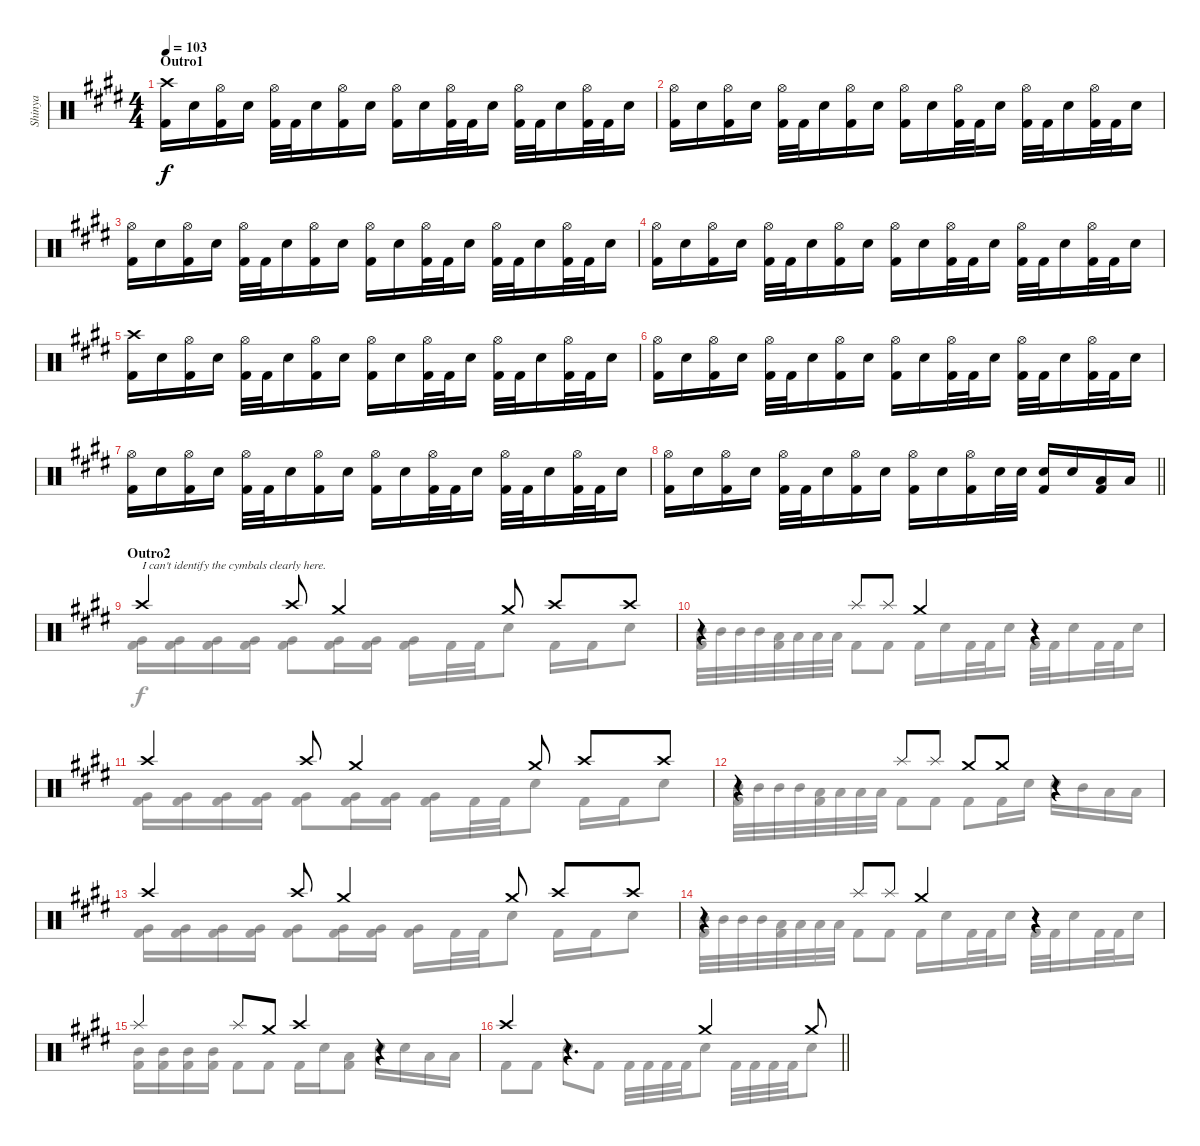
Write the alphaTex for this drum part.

\track ("Shinya" "Shinya") {instrument percussion}
\staff {score}
\articulation defaults
\voice
\ts (4 4)
\section ("" "Outro1")
\tempo 103
\clef neutral
\ks c#minor
("Crash high (hit)" "Kick (hit) 2").16{dy f} "Snare (hit) 2".16 ("Hi-Hat (open)" "Kick (hit) 2").16 "Snare (hit) 2".16 ("Hi-Hat (open)" "Kick (hit) 2").32 "Kick (hit) 2".32 "Snare (hit) 2".16 ("Hi-Hat (open)" "Kick (hit) 2").16 "Snare (hit) 2".16 ("Hi-Hat (open)" "Kick (hit) 2").16 "Snare (hit) 2".16 ("Hi-Hat (open)" "Kick (hit) 2").32 "Kick (hit) 2".32 "Snare (hit) 2".16 ("Hi-Hat (open)" "Kick (hit) 2").32 "Kick (hit) 2".32 "Snare (hit) 2".16 ("Hi-Hat (open)" "Kick (hit) 2").32 "Kick (hit) 2".32 "Snare (hit) 2".16 |
("Hi-Hat (open)" "Kick (hit) 2").16 "Snare (hit) 2".16 ("Hi-Hat (open)" "Kick (hit) 2").16 "Snare (hit) 2".16 ("Hi-Hat (open)" "Kick (hit) 2").32 "Kick (hit) 2".32 "Snare (hit) 2".16 ("Hi-Hat (open)" "Kick (hit) 2").16 "Snare (hit) 2".16 ("Hi-Hat (open)" "Kick (hit) 2").16 "Snare (hit) 2".16 ("Hi-Hat (open)" "Kick (hit) 2").32 "Kick (hit) 2".32 "Snare (hit) 2".16 ("Hi-Hat (open)" "Kick (hit) 2").32 "Kick (hit) 2".32 "Snare (hit) 2".16 ("Hi-Hat (open)" "Kick (hit) 2").32 "Kick (hit) 2".32 "Snare (hit) 2".16 |
("Hi-Hat (open)" "Kick (hit) 2").16 "Snare (hit) 2".16 ("Hi-Hat (open)" "Kick (hit) 2").16 "Snare (hit) 2".16 ("Hi-Hat (open)" "Kick (hit) 2").32 "Kick (hit) 2".32 "Snare (hit) 2".16 ("Hi-Hat (open)" "Kick (hit) 2").16 "Snare (hit) 2".16 ("Hi-Hat (open)" "Kick (hit) 2").16 "Snare (hit) 2".16 ("Hi-Hat (open)" "Kick (hit) 2").32 "Kick (hit) 2".32 "Snare (hit) 2".16 ("Hi-Hat (open)" "Kick (hit) 2").32 "Kick (hit) 2".32 "Snare (hit) 2".16 ("Hi-Hat (open)" "Kick (hit) 2").32 "Kick (hit) 2".32 "Snare (hit) 2".16 |
("Hi-Hat (open)" "Kick (hit) 2").16 "Snare (hit) 2".16 ("Hi-Hat (open)" "Kick (hit) 2").16 "Snare (hit) 2".16 ("Hi-Hat (open)" "Kick (hit) 2").32 "Kick (hit) 2".32 "Snare (hit) 2".16 ("Hi-Hat (open)" "Kick (hit) 2").16 "Snare (hit) 2".16 ("Hi-Hat (open)" "Kick (hit) 2").16 "Snare (hit) 2".16 ("Hi-Hat (open)" "Kick (hit) 2").32 "Kick (hit) 2".32 "Snare (hit) 2".16 ("Hi-Hat (open)" "Kick (hit) 2").32 "Kick (hit) 2".32 "Snare (hit) 2".16 ("Hi-Hat (open)" "Kick (hit) 2").32 "Kick (hit) 2".32 "Snare (hit) 2".16 |
("Crash high (hit)" "Kick (hit) 2").16 "Snare (hit) 2".16 ("Hi-Hat (open)" "Kick (hit) 2").16 "Snare (hit) 2".16 ("Hi-Hat (open)" "Kick (hit) 2").32 "Kick (hit) 2".32 "Snare (hit) 2".16 ("Hi-Hat (open)" "Kick (hit) 2").16 "Snare (hit) 2".16 ("Hi-Hat (open)" "Kick (hit) 2").16 "Snare (hit) 2".16 ("Hi-Hat (open)" "Kick (hit) 2").32 "Kick (hit) 2".32 "Snare (hit) 2".16 ("Hi-Hat (open)" "Kick (hit) 2").32 "Kick (hit) 2".32 "Snare (hit) 2".16 ("Hi-Hat (open)" "Kick (hit) 2").32 "Kick (hit) 2".32 "Snare (hit) 2".16 |
("Hi-Hat (open)" "Kick (hit) 2").16 "Snare (hit) 2".16 ("Hi-Hat (open)" "Kick (hit) 2").16 "Snare (hit) 2".16 ("Hi-Hat (open)" "Kick (hit) 2").32 "Kick (hit) 2".32 "Snare (hit) 2".16 ("Hi-Hat (open)" "Kick (hit) 2").16 "Snare (hit) 2".16 ("Hi-Hat (open)" "Kick (hit) 2").16 "Snare (hit) 2".16 ("Hi-Hat (open)" "Kick (hit) 2").32 "Kick (hit) 2".32 "Snare (hit) 2".16 ("Hi-Hat (open)" "Kick (hit) 2").32 "Kick (hit) 2".32 "Snare (hit) 2".16 ("Hi-Hat (open)" "Kick (hit) 2").32 "Kick (hit) 2".32 "Snare (hit) 2".16 |
("Hi-Hat (open)" "Kick (hit) 2").16 "Snare (hit) 2".16 ("Hi-Hat (open)" "Kick (hit) 2").16 "Snare (hit) 2".16 ("Hi-Hat (open)" "Kick (hit) 2").32 "Kick (hit) 2".32 "Snare (hit) 2".16 ("Hi-Hat (open)" "Kick (hit) 2").16 "Snare (hit) 2".16 ("Hi-Hat (open)" "Kick (hit) 2").16 "Snare (hit) 2".16 ("Hi-Hat (open)" "Kick (hit) 2").32 "Kick (hit) 2".32 "Snare (hit) 2".16 ("Hi-Hat (open)" "Kick (hit) 2").32 "Kick (hit) 2".32 "Snare (hit) 2".16 ("Hi-Hat (open)" "Kick (hit) 2").32 "Kick (hit) 2".32 "Snare (hit) 2".16 |
\barLineRight lightlight
("Hi-Hat (open)" "Kick (hit) 2").16 "Snare (hit) 2".16 ("Hi-Hat (open)" "Kick (hit) 2").16 "Snare (hit) 2".16 ("Hi-Hat (open)" "Kick (hit) 2").32 "Kick (hit) 2".32 "Snare (hit) 2".16 ("Hi-Hat (open)" "Kick (hit) 2").16 "Snare (hit) 2".16 ("Hi-Hat (open)" "Kick (hit) 2").16 "Snare (hit) 2".16 ("Hi-Hat (open)" "Kick (hit) 2").16 "Snare (hit) 2".32 "Snare (hit) 2".32 ("Snare (hit) 2" "Kick (hit) 2").16 "Snare (hit) 2".16 ("Low Tom (hit)" "Kick (hit) 2").16 "Low Tom (hit)".16 |
\section ("" "Outro2")
"Crash high (hit)".4{txt "I can't identify the cymbals clearly here."} "Crash high (hit)".8 "Crash medium (hit)".4 "Crash medium (hit)".8 "Crash high (hit)".8 "Crash high (hit)".8 |
r.4 "Splash (hit)".8 "Splash (hit)".8 "Crash medium (hit)".4 r.4 |
"Crash high (hit)".4 "Crash high (hit)".8 "Crash medium (hit)".4 "Crash medium (hit)".8 "Crash high (hit)".8 "Crash high (hit)".8 |
r.4 "Splash (hit)".8 "Splash (hit)".8 "Crash medium (hit)".8 "Crash medium (hit)".8 r.4 |
"Crash high (hit)".4 "Crash high (hit)".8 "Crash medium (hit)".4 "Crash medium (hit)".8 "Crash high (hit)".8 "Crash high (hit)".8 |
r.4 "Splash (hit)".8 "Splash (hit)".8 "Crash medium (hit)".4 r.4 |
"Splash (hit)".4 "Splash (hit)".8 "Crash medium (hit)".8 "Crash high (hit)".4 r.4 |
\barLineRight lightlight "Crash high (hit)".4
r.4{d} "Crash medium (hit)".4 "Crash medium (hit)".8
\voice
\clef neutral
\ottava regular
\simile none
\ks c#minor
|
|
|
|
|
|
|
\barLineRight lightlight
|
("Very Low Tom (hit)" "Kick (hit) 2").16 ("Very Low Tom (hit)" "Kick (hit) 2").16 ("Very Low Tom (hit)" "Kick (hit) 2").16 ("Very Low Tom (hit)" "Kick (hit) 2").16 ("Very Low Tom (hit)" "Kick (hit) 2").8 ("Very Low Tom (hit)" "Kick (hit) 2").16 ("Very Low Tom (hit)" "Kick (hit) 2").16 ("Very Low Tom (hit)" "Kick (hit) 2").16 "Kick (hit) 2".32 "Kick (hit) 2".32 "Snare (hit) 2".8 "Kick (hit) 2".16 "Kick (hit) 2".16 "Snare (hit) 2".8 |
("Mid Tom (hit)" "Kick (hit) 2").32 "Mid Tom (hit)".32 "Mid Tom (hit)".32 "Mid Tom (hit)".32 ("Low Tom (hit)" "Kick (hit) 2").32 "Low Tom (hit)".32 "Low Tom (hit)".32 "Low Tom (hit)".32 "Kick (hit) 2".8 "Kick (hit) 2".8 "Kick (hit) 2".16 "Snare (hit) 2".16 "Kick (hit) 2".32 "Kick (hit) 2".32 "Snare (hit) 2".16 "Kick (hit) 2".32 "Kick (hit) 2".32 "Snare (hit) 2".16 "Kick (hit) 2".32 "Kick (hit) 2".32 "Snare (hit) 2".16 |
("Very Low Tom (hit)" "Kick (hit) 2").16 ("Very Low Tom (hit)" "Kick (hit) 2").16 ("Very Low Tom (hit)" "Kick (hit) 2").16 ("Very Low Tom (hit)" "Kick (hit) 2").16 ("Very Low Tom (hit)" "Kick (hit) 2").8 ("Very Low Tom (hit)" "Kick (hit) 2").16 ("Very Low Tom (hit)" "Kick (hit) 2").16 ("Very Low Tom (hit)" "Kick (hit) 2").16 "Kick (hit) 2".32 "Kick (hit) 2".32 "Snare (hit) 2".8 "Kick (hit) 2".16 "Kick (hit) 2".16 "Snare (hit) 2".8 |
("Mid Tom (hit)" "Kick (hit) 2").32 "Mid Tom (hit)".32 "Mid Tom (hit)".32 "Mid Tom (hit)".32 ("Low Tom (hit)" "Kick (hit) 2").32 "Low Tom (hit)".32 "Low Tom (hit)".32 "Low Tom (hit)".32 "Kick (hit) 2".8 "Kick (hit) 2".8 "Kick (hit) 2".8 "Kick (hit) 2".16 "Snare (hit) 2".16 "Snare (hit) 2".16 "Mid Tom (hit)".16 "Low Tom (hit)".16 "Low Tom (hit)".16 |
("Very Low Tom (hit)" "Kick (hit) 2").16 ("Very Low Tom (hit)" "Kick (hit) 2").16 ("Very Low Tom (hit)" "Kick (hit) 2").16 ("Very Low Tom (hit)" "Kick (hit) 2").16 ("Very Low Tom (hit)" "Kick (hit) 2").8 ("Very Low Tom (hit)" "Kick (hit) 2").16 ("Very Low Tom (hit)" "Kick (hit) 2").16 ("Very Low Tom (hit)" "Kick (hit) 2").16 "Kick (hit) 2".32 "Kick (hit) 2".32 "Snare (hit) 2".8 "Kick (hit) 2".16 "Kick (hit) 2".16 "Snare (hit) 2".8 |
("Mid Tom (hit)" "Kick (hit) 2").32 "Mid Tom (hit)".32 "Mid Tom (hit)".32 "Mid Tom (hit)".32 ("Low Tom (hit)" "Kick (hit) 2").32 "Low Tom (hit)".32 "Low Tom (hit)".32 "Low Tom (hit)".32 "Kick (hit) 2".8 "Kick (hit) 2".8 "Kick (hit) 2".16 "Snare (hit) 2".16 "Kick (hit) 2".32 "Kick (hit) 2".32 "Snare (hit) 2".16 "Kick (hit) 2".32 "Kick (hit) 2".32 "Snare (hit) 2".16 "Kick (hit) 2".32 "Kick (hit) 2".32 "Snare (hit) 2".16 |
("Mid Tom (hit)" "Kick (hit) 2").16 ("Mid Tom (hit)" "Kick (hit) 2").16 ("Mid Tom (hit)" "Kick (hit) 2").16 ("Mid Tom (hit)" "Kick (hit) 2").16 "Kick (hit) 2".8 "Kick (hit) 2".8 "Kick (hit) 2".16 "Snare (hit) 2".16 ("Low Tom (hit)" "Kick (hit) 2").8 "Snare (hit) 2".16 "Snare (hit) 2".16 "Low Tom (hit)".16 "Low Tom (hit)".16 |
\barLineRight lightlight "Kick (hit) 2".8 "Kick (hit) 2".8 "Snare (hit) 2".8 "Kick (hit) 2".8 "Kick (hit) 2".32 "Kick (hit) 2".32 "Kick (hit) 2".32 "Kick (hit) 2".32 "Snare (hit) 2".8 "Kick (hit) 2".32 "Kick (hit) 2".32 "Kick (hit) 2".32 "Kick (hit) 2".32 "Snare (hit) 2".8
